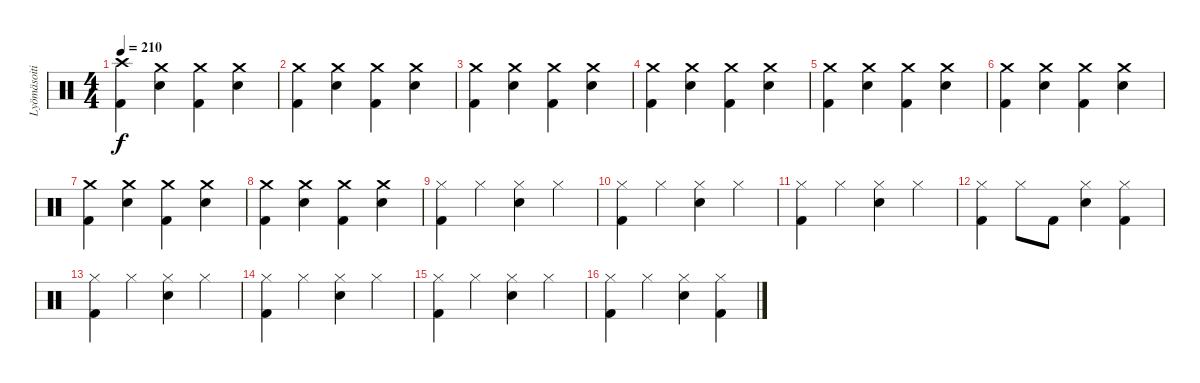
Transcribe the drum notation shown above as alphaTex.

\track ("Lyömäsoitin" "Lyömäsoiti") {instrument percussion}
\staff {score}
\articulation defaults
\ts (4 4)
\tempo 210
\clef neutral
\ks c
("Crash high (hit)" "Kick (hit) 2").4{dy f} ("Crash medium (hit)" "Electric Snare (hit)").4 ("Crash medium (hit)" "Kick (hit) 2").4 ("Crash medium (hit)" "Electric Snare (hit)").4 |
("Crash medium (hit)" "Kick (hit) 2").4 ("Crash medium (hit)" "Electric Snare (hit)").4 ("Crash medium (hit)" "Kick (hit) 2").4 ("Crash medium (hit)" "Electric Snare (hit)").4 |
("Crash medium (hit)" "Kick (hit) 2").4 ("Crash medium (hit)" "Electric Snare (hit)").4 ("Crash medium (hit)" "Kick (hit) 2").4 ("Crash medium (hit)" "Electric Snare (hit)").4 |
("Crash medium (hit)" "Kick (hit) 2").4 ("Crash medium (hit)" "Electric Snare (hit)").4 ("Crash medium (hit)" "Kick (hit) 2").4 ("Crash medium (hit)" "Electric Snare (hit)").4 |
("Crash medium (hit)" "Kick (hit) 2").4 ("Crash medium (hit)" "Electric Snare (hit)").4 ("Crash medium (hit)" "Kick (hit) 2").4 ("Crash medium (hit)" "Electric Snare (hit)").4 |
("Crash medium (hit)" "Kick (hit) 2").4 ("Crash medium (hit)" "Electric Snare (hit)").4 ("Crash medium (hit)" "Kick (hit) 2").4 ("Crash medium (hit)" "Electric Snare (hit)").4 |
("Crash medium (hit)" "Kick (hit) 2").4 ("Crash medium (hit)" "Electric Snare (hit)").4 ("Crash medium (hit)" "Kick (hit) 2").4 ("Crash medium (hit)" "Electric Snare (hit)").4 |
("Crash medium (hit)" "Kick (hit) 2").4 ("Crash medium (hit)" "Electric Snare (hit)").4 ("Crash medium (hit)" "Kick (hit) 2").4 ("Crash medium (hit)" "Electric Snare (hit)").4 |
("Hi-Hat (closed)" "Kick (hit) 2").4 "Hi-Hat (closed)".4 ("Hi-Hat (closed)" "Electric Snare (hit)").4 "Hi-Hat (closed)".4 |
("Hi-Hat (closed)" "Kick (hit) 2").4 "Hi-Hat (closed)".4 ("Hi-Hat (closed)" "Electric Snare (hit)").4 "Hi-Hat (closed)".4 |
("Hi-Hat (closed)" "Kick (hit) 2").4 "Hi-Hat (closed)".4 ("Hi-Hat (closed)" "Electric Snare (hit)").4 "Hi-Hat (closed)".4 |
("Hi-Hat (closed)" "Kick (hit) 2").4 "Hi-Hat (closed)".8 "Kick (hit) 2".8 ("Hi-Hat (closed)" "Electric Snare (hit)").4 ("Hi-Hat (closed)" "Kick (hit) 2").4 |
("Hi-Hat (closed)" "Kick (hit) 2").4 "Hi-Hat (closed)".4 ("Hi-Hat (closed)" "Electric Snare (hit)").4 "Hi-Hat (closed)".4 |
("Hi-Hat (closed)" "Kick (hit) 2").4 "Hi-Hat (closed)".4 ("Hi-Hat (closed)" "Electric Snare (hit)").4 "Hi-Hat (closed)".4 |
("Hi-Hat (closed)" "Kick (hit) 2").4 "Hi-Hat (closed)".4 ("Hi-Hat (closed)" "Electric Snare (hit)").4 "Hi-Hat (closed)".4 |
("Hi-Hat (closed)" "Kick (hit) 2").4 "Hi-Hat (closed)".4 ("Hi-Hat (closed)" "Electric Snare (hit)").4 ("Hi-Hat (closed)" "Kick (hit) 2").4
